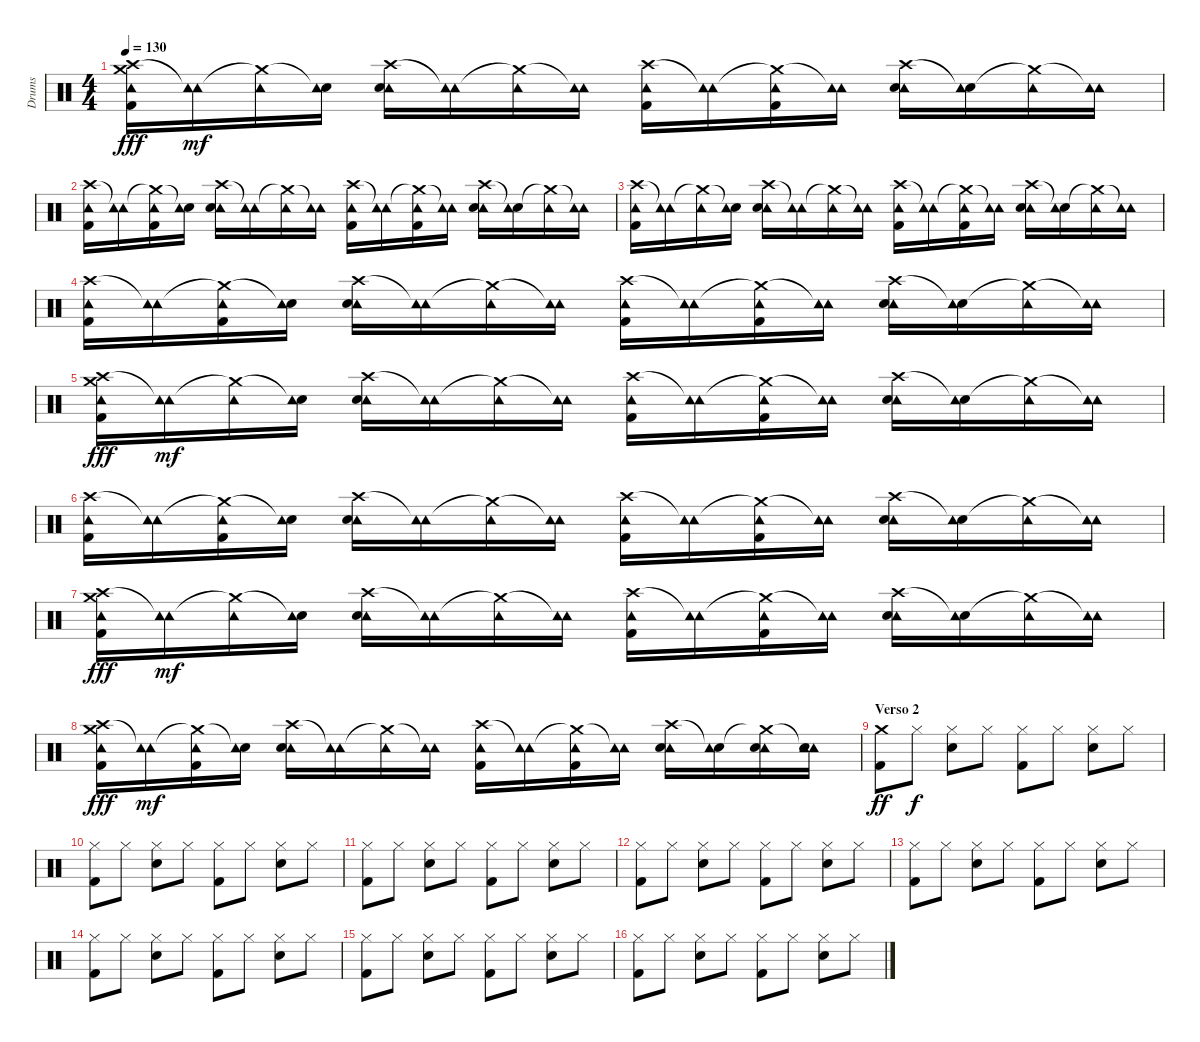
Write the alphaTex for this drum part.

\track ("Drums" "Drums") {instrument percussion}
\staff {score}
\articulation defaults
\ts (4 4)
\tempo 130
\clef neutral
\ks c
("Crash high (hit)" "Tambourine (hit)" "Crash medium (hit)" "Kick (hit) 2").16{dy fff} ("Tambourine (hit)"{t} "Tambourine (hit)").16{dy mf} ("Crash medium (hit)"{t} "Tambourine (hit)").16 ("Snare (hit)"{t} "Tambourine (hit)").16 ("Crash high (hit)" "Tambourine (hit)" "Snare (hit) 2").16 ("Tambourine (hit)"{t} "Tambourine (hit)").16 ("Crash medium (hit)"{t} "Tambourine (hit)").16 ("Tambourine (hit)"{t} "Tambourine (hit)").16 ("Crash high (hit)" "Tambourine (hit)" "Kick (hit) 2").16 ("Tambourine (hit)"{t} "Tambourine (hit)").16 ("Crash medium (hit)"{t} "Tambourine (hit)" "Kick (hit) 2").16 ("Tambourine (hit)"{t} "Tambourine (hit)").16 ("Crash high (hit)" "Tambourine (hit)" "Snare (hit) 2").16 ("Snare (hit)"{t} "Tambourine (hit)").16 ("Crash medium (hit)"{t} "Tambourine (hit)").16 ("Tambourine (hit)"{t} "Tambourine (hit)").16 |
("Crash high (hit)" "Tambourine (hit)" "Kick (hit) 2").16 ("Tambourine (hit)"{t} "Tambourine (hit)").16 ("Crash medium (hit)"{t} "Tambourine (hit)" "Kick (hit) 2").16 ("Snare (hit)"{t} "Tambourine (hit)").16 ("Crash high (hit)" "Tambourine (hit)" "Snare (hit) 2").16 ("Tambourine (hit)"{t} "Tambourine (hit)").16 ("Crash medium (hit)"{t} "Tambourine (hit)").16 ("Tambourine (hit)"{t} "Tambourine (hit)").16 ("Crash high (hit)" "Tambourine (hit)" "Kick (hit) 2").16 ("Tambourine (hit)"{t} "Tambourine (hit)").16 ("Crash medium (hit)"{t} "Tambourine (hit)" "Kick (hit) 2").16 ("Tambourine (hit)"{t} "Tambourine (hit)").16 ("Crash high (hit)" "Tambourine (hit)" "Snare (hit) 2").16 ("Snare (hit)"{t} "Tambourine (hit)").16 ("Crash medium (hit)"{t} "Tambourine (hit)").16 ("Tambourine (hit)"{t} "Tambourine (hit)").16 |
("Crash high (hit)" "Tambourine (hit)" "Kick (hit) 2").16 ("Tambourine (hit)"{t} "Tambourine (hit)").16 ("Crash medium (hit)"{t} "Tambourine (hit)").16 ("Snare (hit)"{t} "Tambourine (hit)").16 ("Crash high (hit)" "Tambourine (hit)" "Snare (hit) 2").16 ("Tambourine (hit)"{t} "Tambourine (hit)").16 ("Crash medium (hit)"{t} "Tambourine (hit)").16 ("Tambourine (hit)"{t} "Tambourine (hit)").16 ("Crash high (hit)" "Tambourine (hit)" "Kick (hit) 2").16 ("Tambourine (hit)"{t} "Tambourine (hit)").16 ("Crash medium (hit)"{t} "Tambourine (hit)" "Kick (hit) 2").16 ("Tambourine (hit)"{t} "Tambourine (hit)").16 ("Crash high (hit)" "Tambourine (hit)" "Snare (hit) 2").16 ("Snare (hit)"{t} "Tambourine (hit)").16 ("Crash medium (hit)"{t} "Tambourine (hit)").16 ("Tambourine (hit)"{t} "Tambourine (hit)").16 |
("Crash high (hit)" "Tambourine (hit)" "Kick (hit) 2").16 ("Tambourine (hit)"{t} "Tambourine (hit)").16 ("Crash medium (hit)"{t} "Tambourine (hit)" "Kick (hit) 2").16 ("Snare (hit)"{t} "Tambourine (hit)").16 ("Crash high (hit)" "Tambourine (hit)" "Snare (hit) 2").16 ("Tambourine (hit)"{t} "Tambourine (hit)").16 ("Crash medium (hit)"{t} "Tambourine (hit)").16 ("Tambourine (hit)"{t} "Tambourine (hit)").16 ("Crash high (hit)" "Tambourine (hit)" "Kick (hit) 2").16 ("Tambourine (hit)"{t} "Tambourine (hit)").16 ("Crash medium (hit)"{t} "Tambourine (hit)" "Kick (hit) 2").16 ("Tambourine (hit)"{t} "Tambourine (hit)").16 ("Crash high (hit)" "Tambourine (hit)" "Snare (hit) 2").16 ("Snare (hit)"{t} "Tambourine (hit)").16 ("Crash medium (hit)"{t} "Tambourine (hit)").16 ("Tambourine (hit)"{t} "Tambourine (hit)").16 |
("Crash high (hit)" "Tambourine (hit)" "Crash medium (hit)" "Kick (hit) 2").16{dy fff} ("Tambourine (hit)"{t} "Tambourine (hit)").16{dy mf} ("Crash medium (hit)"{t} "Tambourine (hit)").16 ("Snare (hit)"{t} "Tambourine (hit)").16 ("Crash high (hit)" "Tambourine (hit)" "Snare (hit) 2").16 ("Tambourine (hit)"{t} "Tambourine (hit)").16 ("Crash medium (hit)"{t} "Tambourine (hit)").16 ("Tambourine (hit)"{t} "Tambourine (hit)").16 ("Crash high (hit)" "Tambourine (hit)" "Kick (hit) 2").16 ("Tambourine (hit)"{t} "Tambourine (hit)").16 ("Crash medium (hit)"{t} "Tambourine (hit)" "Kick (hit) 2").16 ("Tambourine (hit)"{t} "Tambourine (hit)").16 ("Crash high (hit)" "Tambourine (hit)" "Snare (hit) 2").16 ("Snare (hit)"{t} "Tambourine (hit)").16 ("Crash medium (hit)"{t} "Tambourine (hit)").16 ("Tambourine (hit)"{t} "Tambourine (hit)").16 |
("Crash high (hit)" "Tambourine (hit)" "Kick (hit) 2").16 ("Tambourine (hit)"{t} "Tambourine (hit)").16 ("Crash medium (hit)"{t} "Tambourine (hit)" "Kick (hit) 2").16 ("Snare (hit)"{t} "Tambourine (hit)").16 ("Crash high (hit)" "Tambourine (hit)" "Snare (hit) 2").16 ("Tambourine (hit)"{t} "Tambourine (hit)").16 ("Crash medium (hit)"{t} "Tambourine (hit)").16 ("Tambourine (hit)"{t} "Tambourine (hit)").16 ("Crash high (hit)" "Tambourine (hit)" "Kick (hit) 2").16 ("Tambourine (hit)"{t} "Tambourine (hit)").16 ("Crash medium (hit)"{t} "Tambourine (hit)" "Kick (hit) 2").16 ("Tambourine (hit)"{t} "Tambourine (hit)").16 ("Crash high (hit)" "Tambourine (hit)" "Snare (hit) 2").16 ("Snare (hit)"{t} "Tambourine (hit)").16 ("Crash medium (hit)"{t} "Tambourine (hit)").16 ("Tambourine (hit)"{t} "Tambourine (hit)").16 |
("Crash high (hit)" "Tambourine (hit)" "Crash medium (hit)" "Kick (hit) 2").16{dy fff} ("Tambourine (hit)"{t} "Tambourine (hit)").16{dy mf} ("Crash medium (hit)"{t} "Tambourine (hit)").16 ("Snare (hit)"{t} "Tambourine (hit)").16 ("Crash high (hit)" "Tambourine (hit)" "Snare (hit) 2").16 ("Tambourine (hit)"{t} "Tambourine (hit)").16 ("Crash medium (hit)"{t} "Tambourine (hit)").16 ("Tambourine (hit)"{t} "Tambourine (hit)").16 ("Crash high (hit)" "Tambourine (hit)" "Kick (hit) 2").16 ("Tambourine (hit)"{t} "Tambourine (hit)").16 ("Crash medium (hit)"{t} "Tambourine (hit)" "Kick (hit) 2").16 ("Tambourine (hit)"{t} "Tambourine (hit)").16 ("Crash high (hit)" "Tambourine (hit)" "Snare (hit) 2").16 ("Snare (hit)"{t} "Tambourine (hit)").16 ("Crash medium (hit)"{t} "Tambourine (hit)").16 ("Tambourine (hit)"{t} "Tambourine (hit)").16 |
("Crash high (hit)" "Tambourine (hit)" "Crash medium (hit)" "Kick (hit) 2").16{dy fff} ("Tambourine (hit)"{t} "Tambourine (hit)").16{dy mf} ("Crash medium (hit)"{t} "Tambourine (hit)" "Kick (hit) 2").16 ("Snare (hit)"{t} "Tambourine (hit)").16 ("Crash high (hit)" "Tambourine (hit)" "Snare (hit) 2").16 ("Tambourine (hit)"{t} "Tambourine (hit)").16 ("Crash medium (hit)"{t} "Tambourine (hit)").16 ("Tambourine (hit)"{t} "Tambourine (hit)").16 ("Crash high (hit)" "Tambourine (hit)" "Kick (hit) 2").16 ("Tambourine (hit)"{t} "Tambourine (hit)").16 ("Crash medium (hit)"{t} "Tambourine (hit)" "Kick (hit) 2").16 ("Tambourine (hit)"{t} "Tambourine (hit)").16 ("Crash high (hit)" "Tambourine (hit)" "Snare (hit) 2").16 ("Snare (hit)"{t} "Tambourine (hit)").16 ("Crash medium (hit)"{t} "Tambourine (hit)" "Snare (hit) 2").16 ("Tambourine (hit)"{t} "Tambourine (hit)" "Snare (hit) 2").16 |
\section ("" "Verso 2")
("Crash medium (hit)" "Kick (hit) 2").8{dy ff} "Hi-Hat (closed)".8{dy f} ("Hi-Hat (closed)" "Snare (hit) 2").8 "Hi-Hat (closed)".8 ("Hi-Hat (closed)" "Kick (hit) 2").8 "Hi-Hat (closed)".8 ("Hi-Hat (closed)" "Snare (hit) 2").8 "Hi-Hat (closed)".8 |
("Hi-Hat (closed)" "Kick (hit) 2").8 "Hi-Hat (closed)".8 ("Hi-Hat (closed)" "Snare (hit) 2").8 "Hi-Hat (closed)".8 ("Hi-Hat (closed)" "Kick (hit) 2").8 "Hi-Hat (closed)".8 ("Hi-Hat (closed)" "Snare (hit) 2").8 "Hi-Hat (closed)".8 |
("Hi-Hat (closed)" "Kick (hit) 2").8 "Hi-Hat (closed)".8 ("Hi-Hat (closed)" "Snare (hit) 2").8 "Hi-Hat (closed)".8 ("Hi-Hat (closed)" "Kick (hit) 2").8 "Hi-Hat (closed)".8 ("Hi-Hat (closed)" "Snare (hit) 2").8 "Hi-Hat (closed)".8 |
("Hi-Hat (closed)" "Kick (hit) 2").8 "Hi-Hat (closed)".8 ("Hi-Hat (closed)" "Snare (hit) 2").8 "Hi-Hat (closed)".8 ("Hi-Hat (closed)" "Kick (hit) 2").8 "Hi-Hat (closed)".8 ("Hi-Hat (closed)" "Snare (hit) 2").8 "Hi-Hat (closed)".8 |
("Hi-Hat (closed)" "Kick (hit) 2").8 "Hi-Hat (closed)".8 ("Hi-Hat (closed)" "Snare (hit) 2").8 "Hi-Hat (closed)".8 ("Hi-Hat (closed)" "Kick (hit) 2").8 "Hi-Hat (closed)".8 ("Hi-Hat (closed)" "Snare (hit) 2").8 "Hi-Hat (closed)".8 |
("Hi-Hat (closed)" "Kick (hit) 2").8 "Hi-Hat (closed)".8 ("Hi-Hat (closed)" "Snare (hit) 2").8 "Hi-Hat (closed)".8 ("Hi-Hat (closed)" "Kick (hit) 2").8 "Hi-Hat (closed)".8 ("Hi-Hat (closed)" "Snare (hit) 2").8 "Hi-Hat (closed)".8 |
("Hi-Hat (closed)" "Kick (hit) 2").8 "Hi-Hat (closed)".8 ("Hi-Hat (closed)" "Snare (hit) 2").8 "Hi-Hat (closed)".8 ("Hi-Hat (closed)" "Kick (hit) 2").8 "Hi-Hat (closed)".8 ("Hi-Hat (closed)" "Snare (hit) 2").8 "Hi-Hat (closed)".8 |
("Hi-Hat (closed)" "Kick (hit) 2").8 "Hi-Hat (closed)".8 ("Hi-Hat (closed)" "Snare (hit) 2").8 "Hi-Hat (closed)".8 ("Hi-Hat (closed)" "Kick (hit) 2").8 "Hi-Hat (closed)".8 ("Hi-Hat (closed)" "Snare (hit) 2").8 "Hi-Hat (closed)".8
